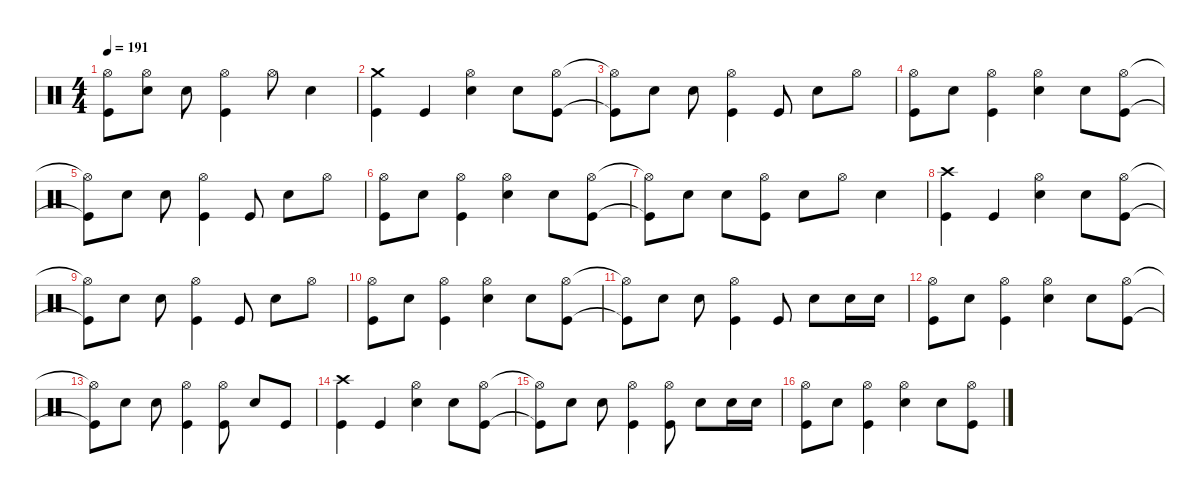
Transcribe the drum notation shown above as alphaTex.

\defaultSystemsLayout 4
\hideDynamics
\bracketExtendMode nobrackets
\singleTrackTrackNamePolicy hidden
\multiTrackTrackNamePolicy hidden
\firstSystemTrackNameMode fullname
\firstSystemTrackNameOrientation horizontal
\otherSystemsTrackNameOrientation horizontal
\track ("Drumkit" "drm.") {instrument percussion}
\staff {score}
\articulation defaults
\ts (4 4)
\tempo 191
\clef neutral
\ks c
("Kick (hit)"{t} "Hi-Hat (open)"{t}).8{dy mf beam Down} ("Hi-Hat (open)" "Snare (hit) 2").8{dy f beam Down} "Snare (hit) 2".8{dy mf beam Down} ("Hi-Hat (open)" "Kick (hit)").4{beam Down} "Hi-Hat (open)".8{beam Down} "Snare (hit) 2".4{beam Down} |
("Kick (hit)" "Crash medium (hit)").4{dy f beam Down} "Kick (hit)".4{beam Up} ("Snare (hit) 2" "Hi-Hat (open)").4{beam Down} "Snare (hit) 2".8{beam Down} ("Kick (hit)" "Hi-Hat (open)").8{beam Down} |
("Kick (hit)"{t} "Hi-Hat (open)"{t}).8{beam Down} "Snare (hit) 2".8{dy mp beam Down} "Snare (hit) 2".8{dy mf beam Down} ("Kick (hit)" "Hi-Hat (open)").4{beam Down} "Kick (hit)".8{beam Up} "Snare (hit) 2".8{beam Down} "Hi-Hat (open)".8{beam Down} |
("Kick (hit)" "Hi-Hat (open)").8{beam Down} "Snare (hit) 2".8{beam Down} ("Kick (hit)" "Hi-Hat (open)").4{beam Down} ("Snare (hit) 2" "Hi-Hat (open)").4{beam Down} "Snare (hit) 2".8{beam Down} ("Kick (hit)" "Hi-Hat (open)").8{beam Down} |
("Kick (hit)"{t} "Hi-Hat (open)"{t}).8{beam Down} "Snare (hit) 2".8{beam Down} "Snare (hit) 2".8{beam Down} ("Hi-Hat (open)" "Kick (hit)").4{beam Down} "Kick (hit)".8{beam Up} "Snare (hit) 2".8{beam Down} "Hi-Hat (open)".8{beam Down} |
("Kick (hit)" "Hi-Hat (open)").8{dy mp beam Down} "Snare (hit) 2".8{beam Down} ("Kick (hit)" "Hi-Hat (open)").4{dy mf beam Down} ("Snare (hit) 2" "Hi-Hat (open)").4{beam Down} "Snare (hit) 2".8{dy mp beam Down} ("Kick (hit)" "Hi-Hat (open)").8{beam Down} |
("Kick (hit)"{t} "Hi-Hat (open)"{t}).8{beam Down} "Snare (hit) 2".8{dy mf beam Down} "Snare (hit) 2".8{beam Down} ("Hi-Hat (open)" "Kick (hit)").8{beam Down} "Snare (hit) 2".8{dy mp beam Down} "Hi-Hat (open)".8{beam Down} "Snare (hit) 2".4{dy mf beam Down} |
("Kick (hit)" "Crash high (hit)").4{beam Down} "Kick (hit)".4{beam Up} ("Snare (hit) 2" "Hi-Hat (open)").4{beam Down} "Snare (hit) 2".8{dy mp beam Down} ("Kick (hit)" "Hi-Hat (open)").8{beam Down} |
("Kick (hit)"{t} "Hi-Hat (open)"{t}).8{beam Down} "Snare (hit) 2".8{beam Down} "Snare (hit) 2".8{dy mf beam Down} ("Kick (hit)" "Hi-Hat (open)").4{beam Down} "Kick (hit)".8{beam Up} "Snare (hit) 2".8{beam Down} "Hi-Hat (open)".8{beam Down} |
("Kick (hit)" "Hi-Hat (open)").8{dy mp beam Down} "Snare (hit) 2".8{beam Down} ("Kick (hit)" "Hi-Hat (open)").4{beam Down} ("Snare (hit) 2" "Hi-Hat (open)").4{dy mf beam Down} "Snare (hit) 2".8{dy mp beam Down} ("Kick (hit)" "Hi-Hat (open)").8{beam Down} |
("Kick (hit)"{t} "Hi-Hat (open)"{t}).8{dy mf beam Down} "Snare (hit) 2".8{beam Down} "Snare (hit) 2".8{beam Down} ("Kick (hit)" "Hi-Hat (open)").4{beam Down} "Kick (hit)".8{beam Up} "Snare (hit) 2".8{beam Down} "Snare (hit) 2".16{dy mp beam Down} "Snare (hit) 2".16{beam Down} |
("Kick (hit)" "Hi-Hat (open)").8{dy mf beam Down} "Snare (hit) 2".8{beam Down} ("Kick (hit)" "Hi-Hat (open)").4{beam Down} ("Snare (hit) 2" "Hi-Hat (open)").4{beam Down} "Snare (hit) 2".8{beam Down} ("Kick (hit)" "Hi-Hat (open)").8{beam Down} |
("Kick (hit)"{t} "Hi-Hat (open)"{t}).8{beam Down} "Snare (hit) 2".8{beam Down} "Snare (hit) 2".8{beam Down} ("Kick (hit)" "Hi-Hat (open)").4{beam Down} ("Kick (hit)" "Hi-Hat (open)").8{dy mp beam Down} "Snare (hit) 2".8{beam Up} "Kick (hit)".8{beam Up} |
("Kick (hit)" "Crash high (hit)").4{dy mf beam Down} "Kick (hit)".4{beam Up} ("Snare (hit) 2" "Hi-Hat (open)").4{beam Down} "Snare (hit) 2".8{dy mp beam Down} ("Kick (hit)" "Hi-Hat (open)").8{beam Down} |
("Kick (hit)"{t} "Hi-Hat (open)"{t}).8{beam Down} "Snare (hit) 2".8{beam Down} "Snare (hit) 2".8{dy mf beam Down} ("Kick (hit)" "Hi-Hat (open)").4{beam Down} ("Kick (hit)" "Hi-Hat (open)").8{beam Down} "Snare (hit) 2".8{beam Down} "Snare (hit) 2".16{beam Down} "Snare (hit) 2".16{beam Down} |
("Kick (hit)" "Hi-Hat (open)").8{beam Down} "Snare (hit) 2".8{beam Down} ("Kick (hit)" "Hi-Hat (open)").4{beam Down} ("Snare (hit) 2" "Hi-Hat (open)").4{beam Down} "Snare (hit) 2".8{beam Down} ("Kick (hit)" "Hi-Hat (open)").8{beam Down}
